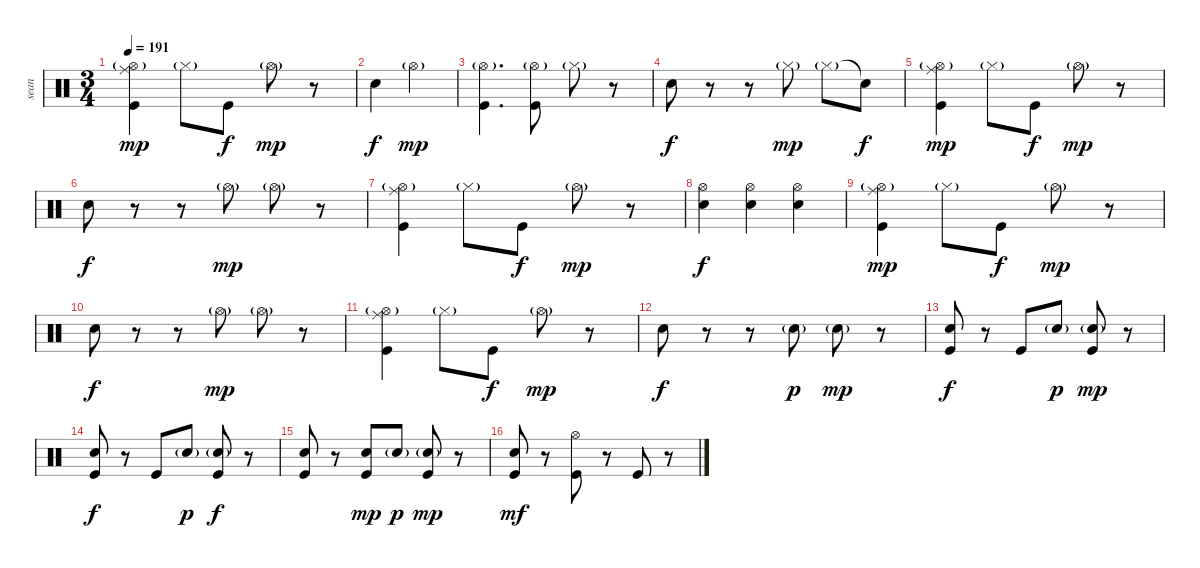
\track ("sean" "sean") {instrument percussion}
\staff {score}
\articulation defaults
\ts (3 4)
\tempo 191
\clef neutral
\ks c
("Hi-Hat (open)"{g} "Kick (hit)" "Ride (middle)").4{dy mp} "Hi-Hat (closed)"{g}.8 "Kick (hit)".8{dy f} "Hi-Hat (open)"{g}.8{dy mp} r.8 |
"Electric Snare (hit)".4{dy f} "Hi-Hat (open)"{g}.2{dy mp} |
("Hi-Hat (open)"{g} "Kick (hit)").4{d} ("Hi-Hat (open)"{g} "Kick (hit)").8 "Hi-Hat (closed)"{g}.8 r.8 |
"Electric Snare (hit)".8{dy f} r.8 r.8 "Hi-Hat (closed)"{g}.8{dy mp} "Hi-Hat (closed)"{g}.8 "Snare (hit)"{t}.8{dy f} |
("Hi-Hat (open)"{g} "Kick (hit)" "Ride (middle)").4{dy mp} "Hi-Hat (closed)"{g}.8 "Kick (hit)".8{dy f} "Hi-Hat (open)"{g}.8{dy mp} r.8 |
"Electric Snare (hit)".8{dy f} r.8 r.8 "Hi-Hat (open)"{g}.8{dy mp} "Hi-Hat (open)"{g}.8 r.8 |
("Hi-Hat (open)"{g} "Kick (hit)" "Ride (middle)").4 "Hi-Hat (closed)"{g}.8 "Kick (hit)".8{dy f} "Hi-Hat (open)"{g}.8{dy mp} r.8 |
("Hi-Hat (open)" "Electric Snare (hit)").4{dy f} ("Hi-Hat (open)" "Electric Snare (hit)").4 ("Hi-Hat (open)" "Electric Snare (hit)").4 |
("Hi-Hat (open)"{g} "Kick (hit)" "Ride (middle)").4{dy mp} "Hi-Hat (closed)"{g}.8 "Kick (hit)".8{dy f} "Hi-Hat (open)"{g}.8{dy mp} r.8 |
"Electric Snare (hit)".8{dy f} r.8 r.8 "Hi-Hat (open)"{g}.8{dy mp} "Hi-Hat (open)"{g}.8 r.8 |
("Hi-Hat (open)"{g} "Kick (hit)" "Ride (middle)").4 "Hi-Hat (closed)"{g}.8 "Kick (hit)".8{dy f} "Hi-Hat (open)"{g}.8{dy mp} r.8 |
"Electric Snare (hit)".8{dy f} r.8 r.8 "Electric Snare (hit)"{g}.8{dy p} "Electric Snare (hit)"{g}.8{dy mp} r.8 |
("Electric Snare (hit)" "Kick (hit)").8{dy f} r.8 "Kick (hit)".8 "Electric Snare (hit)"{g}.8{dy p} ("Electric Snare (hit)"{g} "Kick (hit)").8{dy mp} r.8 |
("Electric Snare (hit)" "Kick (hit)").8{dy f} r.8 "Kick (hit)".8 "Electric Snare (hit)"{g}.8{dy p} ("Electric Snare (hit)"{g} "Kick (hit)").8{dy f} r.8 |
("Electric Snare (hit)" "Kick (hit)").8 r.8 ("Electric Snare (hit)" "Kick (hit)").8{dy mp} "Electric Snare (hit)"{g}.8{dy p} ("Electric Snare (hit)"{g} "Kick (hit)").8{dy mp} r.8 |
("Electric Snare (hit)" "Kick (hit)").8{dy mf} r.8 ("Hi-Hat (open)" "Kick (hit)").8 r.8 "Kick (hit)".8 r.8
